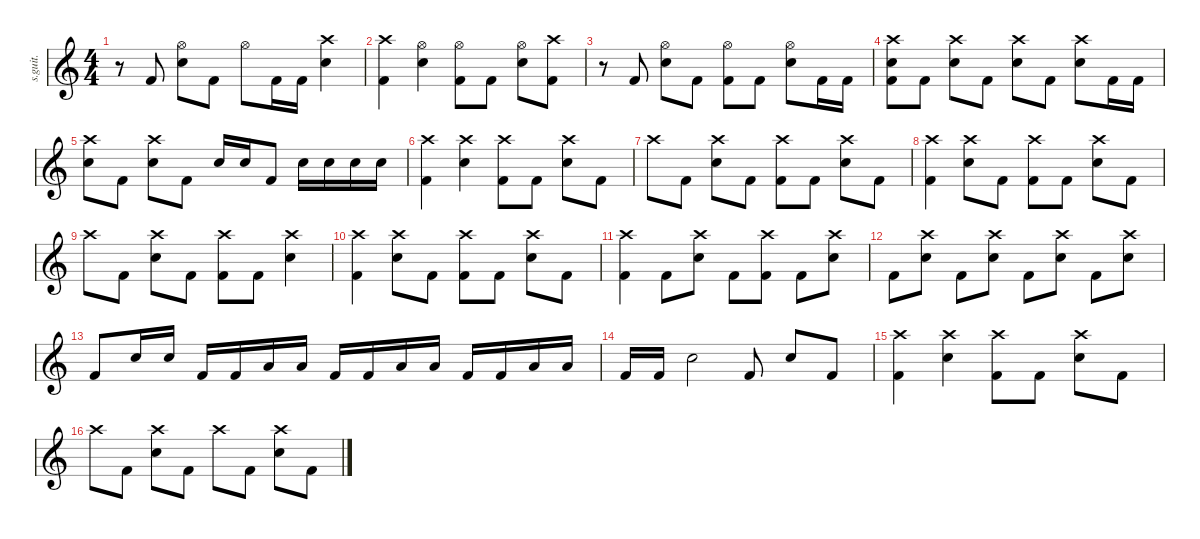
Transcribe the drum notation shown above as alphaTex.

\defaultSystemsLayout 4
\hideDynamics
\bracketExtendMode nobrackets
\track ("" "s.guit.") {instrument percussion}
\staff {score}
\articulation defaults
\ts (4 4)
\tempo (184 hide)
\clef g2
\ks c
r.8{dy f} "Kick (hit) 2".8 ("Hi-Hat (open)" "Snare (hit) 2").8 "Kick (hit) 2".8 "Hi-Hat (open)".8 "Kick (hit) 2".16 "Kick (hit) 2".16 ("Crash high (hit)" "Snare (hit) 2").4 |
("Crash high (hit)" "Kick (hit) 2").4 ("Hi-Hat (open)" "Snare (hit) 2").4 ("Hi-Hat (open)" "Kick (hit) 2").8 "Kick (hit) 2".8 ("Hi-Hat (open)" "Snare (hit) 2").8 ("Crash high (hit)" "Kick (hit) 2").8 |
r.8 "Kick (hit) 2".8 ("Hi-Hat (open)" "Snare (hit) 2").8 "Kick (hit) 2".8 ("Hi-Hat (open)" "Kick (hit) 2").8 "Kick (hit) 2".8 ("Hi-Hat (open)" "Snare (hit) 2").8 "Kick (hit) 2".16 "Kick (hit) 2".16 |
("Crash high (hit)" "Snare (hit) 2" "Kick (hit) 2").8 "Kick (hit) 2".8 ("Crash high (hit)" "Snare (hit) 2").8 "Kick (hit) 2".8 ("Crash high (hit)" "Snare (hit) 2").8 "Kick (hit) 2".8 ("Crash high (hit)" "Snare (hit) 2").8 "Kick (hit) 2".16 "Kick (hit) 2".16 |
("Crash high (hit)" "Snare (hit) 2").8 "Kick (hit) 2".8 ("Crash high (hit)" "Snare (hit) 2").8 "Kick (hit) 2".8 "Snare (hit) 2".16 "Snare (hit) 2".16 "Kick (hit) 2".8 "Snare (hit) 2".16 "Snare (hit) 2".16 "Snare (hit) 2".16 "Snare (hit) 2".16 |
("Crash high (hit)" "Kick (hit) 2").4 ("Crash high (hit)" "Snare (hit) 2").4 ("Crash high (hit)" "Kick (hit) 2").8 "Kick (hit) 2".8 ("Crash high (hit)" "Snare (hit) 2").8 "Kick (hit) 2".8 |
"Crash high (hit)".8 "Kick (hit) 2".8 ("Crash high (hit)" "Snare (hit) 2").8 "Kick (hit) 2".8 ("Crash high (hit)" "Kick (hit) 2").8 "Kick (hit) 2".8 ("Crash high (hit)" "Snare (hit) 2").8 "Kick (hit) 2".8 |
("Crash high (hit)" "Kick (hit) 2").4 ("Crash high (hit)" "Snare (hit) 2").8 "Kick (hit) 2".8 ("Crash high (hit)" "Kick (hit) 2").8 "Kick (hit) 2".8 ("Crash high (hit)" "Snare (hit) 2").8 "Kick (hit) 2".8 |
"Crash high (hit)".8 "Kick (hit) 2".8 ("Crash high (hit)" "Snare (hit) 2").8 "Kick (hit) 2".8 ("Crash high (hit)" "Kick (hit) 2").8 "Kick (hit) 2".8 ("Crash high (hit)" "Snare (hit) 2").4 |
("Crash high (hit)" "Kick (hit) 2").4 ("Crash high (hit)" "Snare (hit) 2").8 "Kick (hit) 2".8 ("Crash high (hit)" "Kick (hit) 2").8 "Kick (hit) 2".8 ("Crash high (hit)" "Snare (hit) 2").8 "Kick (hit) 2".8 |
("Crash high (hit)" "Kick (hit) 2").4 "Kick (hit) 2".8 ("Crash high (hit)" "Snare (hit) 2").8 "Kick (hit) 2".8 ("Crash high (hit)" "Kick (hit) 2").8 "Kick (hit) 2".8 ("Crash high (hit)" "Snare (hit) 2").8 |
"Kick (hit) 2".8 ("Crash high (hit)" "Snare (hit) 2").8 "Kick (hit) 2".8 ("Crash high (hit)" "Snare (hit) 2").8 "Kick (hit) 2".8 ("Crash high (hit)" "Snare (hit) 2").8 "Kick (hit) 2".8 ("Crash high (hit)" "Snare (hit) 2").8 |
"Kick (hit) 2".8 "Snare (hit) 2".16 "Snare (hit) 2".16 "Kick (hit) 2".16 "Kick (hit) 2".16 "Low Tom (hit)".16 "Low Tom (hit)".16 "Kick (hit) 2".16 "Kick (hit) 2".16 "Low Floor Tom (hit)".16 "Low Floor Tom (hit)".16 "Kick (hit) 2".16 "Kick (hit) 2".16 "Low Floor Tom (hit)".16 "Low Floor Tom (hit)".16 |
"Kick (hit) 2".16 "Kick (hit) 2".16 "Snare (hit) 2".2 "Kick (hit) 2".8 "Snare (hit) 2".8 "Kick (hit) 2".8 |
("Crash high (hit)" "Kick (hit) 2").4 ("Crash high (hit)" "Snare (hit) 2").4 ("Crash high (hit)" "Kick (hit) 2").8 "Kick (hit) 2".8 ("Crash high (hit)" "Snare (hit) 2").8 "Kick (hit) 2".8 |
"Crash high (hit)".8 "Kick (hit) 2".8 ("Crash high (hit)" "Snare (hit) 2").8 "Kick (hit) 2".8 "Crash high (hit)".8 "Kick (hit) 2".8 ("Crash high (hit)" "Snare (hit) 2").8 "Kick (hit) 2".8
